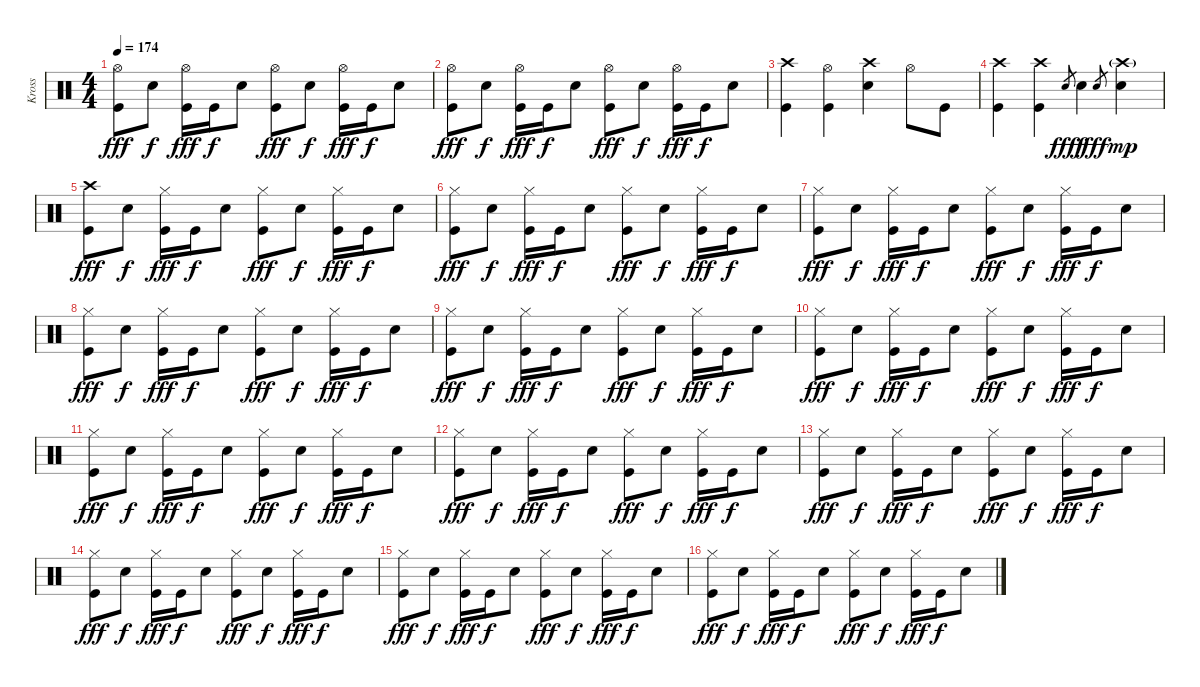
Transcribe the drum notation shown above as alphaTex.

\track ("Kross" "Kross") {instrument percussion}
\staff {score}
\articulation defaults
\ts (4 4)
\tempo 174
\clef neutral
\ks c
("Hi-Hat (open)" "Kick (hit)").8{dy fff} "Snare (hit) 2".8{dy f} ("Hi-Hat (open)" "Kick (hit)").16{dy fff} "Kick (hit)".16{dy f} "Snare (hit) 2".8 ("Hi-Hat (open)" "Kick (hit)").8{dy fff} "Snare (hit) 2".8{dy f} ("Hi-Hat (open)" "Kick (hit)").16{dy fff} "Kick (hit)".16{dy f} "Snare (hit) 2".8 |
("Hi-Hat (open)" "Kick (hit)").8{dy fff} "Snare (hit) 2".8{dy f} ("Hi-Hat (open)" "Kick (hit)").16{dy fff} "Kick (hit)".16{dy f} "Snare (hit) 2".8 ("Hi-Hat (open)" "Kick (hit)").8{dy fff} "Snare (hit) 2".8{dy f} ("Hi-Hat (open)" "Kick (hit)").16{dy fff} "Kick (hit)".16{dy f} "Snare (hit) 2".8 |
("Crash high (hit)" "Kick (hit)").4 ("Hi-Hat (open)" "Kick (hit)").4 ("Crash high (hit)" "Snare (hit) 2").4 "Hi-Hat (open)".8 "Kick (hit)".8 |
("Crash high (hit)" "Kick (hit)").4 ("Crash high (hit)" "Kick (hit)").4 "Snare (hit) 2".8{gr dy fff} "Snare (hit) 2".4{dy f} "Snare (hit) 2".8{gr dy fff} ("Crash high (hit)"{g} "Snare (hit) 2").4{dy mp} |
("Crash high (hit)" "Kick (hit)").8{dy fff} "Snare (hit) 2".8{dy f} ("Hi-Hat (closed)" "Kick (hit)").16{dy fff} "Kick (hit)".16{dy f} "Snare (hit) 2".8 ("Hi-Hat (closed)" "Kick (hit)").8{dy fff} "Snare (hit) 2".8{dy f} ("Hi-Hat (closed)" "Kick (hit)").16{dy fff} "Kick (hit)".16{dy f} "Snare (hit) 2".8 |
("Hi-Hat (closed)" "Kick (hit)").8{dy fff} "Snare (hit) 2".8{dy f} ("Hi-Hat (closed)" "Kick (hit)").16{dy fff} "Kick (hit)".16{dy f} "Snare (hit) 2".8 ("Hi-Hat (closed)" "Kick (hit)").8{dy fff} "Snare (hit) 2".8{dy f} ("Hi-Hat (closed)" "Kick (hit)").16{dy fff} "Kick (hit)".16{dy f} "Snare (hit) 2".8 |
("Hi-Hat (closed)" "Kick (hit)").8{dy fff} "Snare (hit) 2".8{dy f} ("Hi-Hat (closed)" "Kick (hit)").16{dy fff} "Kick (hit)".16{dy f} "Snare (hit) 2".8 ("Hi-Hat (closed)" "Kick (hit)").8{dy fff} "Snare (hit) 2".8{dy f} ("Hi-Hat (closed)" "Kick (hit)").16{dy fff} "Kick (hit)".16{dy f} "Snare (hit) 2".8 |
("Hi-Hat (closed)" "Kick (hit)").8{dy fff} "Snare (hit) 2".8{dy f} ("Hi-Hat (closed)" "Kick (hit)").16{dy fff} "Kick (hit)".16{dy f} "Snare (hit) 2".8 ("Hi-Hat (closed)" "Kick (hit)").8{dy fff} "Snare (hit) 2".8{dy f} ("Hi-Hat (closed)" "Kick (hit)").16{dy fff} "Kick (hit)".16{dy f} "Snare (hit) 2".8 |
("Hi-Hat (closed)" "Kick (hit)").8{dy fff} "Snare (hit) 2".8{dy f} ("Hi-Hat (closed)" "Kick (hit)").16{dy fff} "Kick (hit)".16{dy f} "Snare (hit) 2".8 ("Hi-Hat (closed)" "Kick (hit)").8{dy fff} "Snare (hit) 2".8{dy f} ("Hi-Hat (closed)" "Kick (hit)").16{dy fff} "Kick (hit)".16{dy f} "Snare (hit) 2".8 |
("Hi-Hat (closed)" "Kick (hit)").8{dy fff} "Snare (hit) 2".8{dy f} ("Hi-Hat (closed)" "Kick (hit)").16{dy fff} "Kick (hit)".16{dy f} "Snare (hit) 2".8 ("Hi-Hat (closed)" "Kick (hit)").8{dy fff} "Snare (hit) 2".8{dy f} ("Hi-Hat (closed)" "Kick (hit)").16{dy fff} "Kick (hit)".16{dy f} "Snare (hit) 2".8 |
("Hi-Hat (closed)" "Kick (hit)").8{dy fff} "Snare (hit) 2".8{dy f} ("Hi-Hat (closed)" "Kick (hit)").16{dy fff} "Kick (hit)".16{dy f} "Snare (hit) 2".8 ("Hi-Hat (closed)" "Kick (hit)").8{dy fff} "Snare (hit) 2".8{dy f} ("Hi-Hat (closed)" "Kick (hit)").16{dy fff} "Kick (hit)".16{dy f} "Snare (hit) 2".8 |
("Hi-Hat (closed)" "Kick (hit)").8{dy fff} "Snare (hit) 2".8{dy f} ("Hi-Hat (closed)" "Kick (hit)").16{dy fff} "Kick (hit)".16{dy f} "Snare (hit) 2".8 ("Hi-Hat (closed)" "Kick (hit)").8{dy fff} "Snare (hit) 2".8{dy f} ("Hi-Hat (closed)" "Kick (hit)").16{dy fff} "Kick (hit)".16{dy f} "Snare (hit) 2".8 |
("Hi-Hat (closed)" "Kick (hit)").8{dy fff} "Snare (hit) 2".8{dy f} ("Hi-Hat (closed)" "Kick (hit)").16{dy fff} "Kick (hit)".16{dy f} "Snare (hit) 2".8 ("Hi-Hat (closed)" "Kick (hit)").8{dy fff} "Snare (hit) 2".8{dy f} ("Hi-Hat (closed)" "Kick (hit)").16{dy fff} "Kick (hit)".16{dy f} "Snare (hit) 2".8 |
("Hi-Hat (closed)" "Kick (hit)").8{dy fff} "Snare (hit) 2".8{dy f} ("Hi-Hat (closed)" "Kick (hit)").16{dy fff} "Kick (hit)".16{dy f} "Snare (hit) 2".8 ("Hi-Hat (closed)" "Kick (hit)").8{dy fff} "Snare (hit) 2".8{dy f} ("Hi-Hat (closed)" "Kick (hit)").16{dy fff} "Kick (hit)".16{dy f} "Snare (hit) 2".8 |
("Hi-Hat (closed)" "Kick (hit)").8{dy fff} "Snare (hit) 2".8{dy f} ("Hi-Hat (closed)" "Kick (hit)").16{dy fff} "Kick (hit)".16{dy f} "Snare (hit) 2".8 ("Hi-Hat (closed)" "Kick (hit)").8{dy fff} "Snare (hit) 2".8{dy f} ("Hi-Hat (closed)" "Kick (hit)").16{dy fff} "Kick (hit)".16{dy f} "Snare (hit) 2".8 |
("Hi-Hat (closed)" "Kick (hit)").8{dy fff} "Snare (hit) 2".8{dy f} ("Hi-Hat (closed)" "Kick (hit)").16{dy fff} "Kick (hit)".16{dy f} "Snare (hit) 2".8 ("Hi-Hat (closed)" "Kick (hit)").8{dy fff} "Snare (hit) 2".8{dy f} ("Hi-Hat (closed)" "Kick (hit)").16{dy fff} "Kick (hit)".16{dy f} "Snare (hit) 2".8
